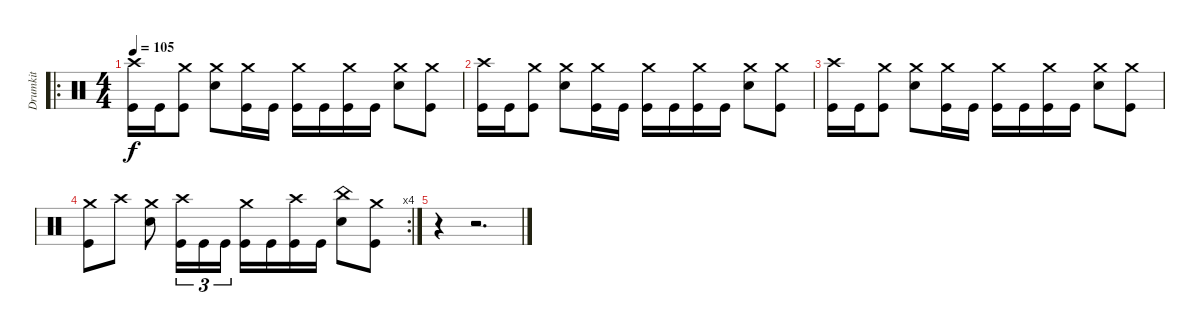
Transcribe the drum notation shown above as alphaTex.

\track ("Drumkit" "Drumkit") {instrument percussion}
\staff {score}
\articulation defaults
\ro
\ts (4 4)
\tempo 105
\clef neutral
\ks c
("Crash high (hit)" "Kick (hit)").16{dy f} "Kick (hit)".16 ("Crash medium (hit)" "Kick (hit)").8 ("Crash medium (hit)" "Snare (hit) 2").8 ("Crash medium (hit)" "Kick (hit)").16 "Kick (hit)".16 ("Crash medium (hit)" "Kick (hit)").16 "Kick (hit)".16 ("Crash medium (hit)" "Kick (hit)").16 "Kick (hit)".16 ("Crash medium (hit)" "Snare (hit) 2").8 ("Crash medium (hit)" "Kick (hit)").8 |
("Crash high (hit)" "Kick (hit)").16 "Kick (hit)".16 ("Crash medium (hit)" "Kick (hit)").8 ("Crash medium (hit)" "Snare (hit) 2").8 ("Crash medium (hit)" "Kick (hit)").16 "Kick (hit)".16 ("Crash medium (hit)" "Kick (hit)").16 "Kick (hit)".16 ("Crash medium (hit)" "Kick (hit)").16 "Kick (hit)".16 ("Crash medium (hit)" "Snare (hit) 2").8 ("Crash medium (hit)" "Kick (hit)").8 |
("Crash high (hit)" "Kick (hit)").16 "Kick (hit)".16 ("Crash medium (hit)" "Kick (hit)").8 ("Crash medium (hit)" "Snare (hit) 2").8 ("Crash medium (hit)" "Kick (hit)").16 "Kick (hit)".16 ("Crash medium (hit)" "Kick (hit)").16 "Kick (hit)".16 ("Crash medium (hit)" "Kick (hit)").16 "Kick (hit)".16 ("Crash medium (hit)" "Snare (hit) 2").8 ("Crash medium (hit)" "Kick (hit)").8 |
\rc 4
("Crash medium (hit)" "Kick (hit)").8 "Crash high (hit)".8 ("Crash medium (hit)" "Snare (hit) 2").8 ("Crash high (hit)" "Kick (hit)").16{tu (3 2)} "Kick (hit)".16{tu (3 2)} "Kick (hit)".16{tu (3 2)} ("Crash medium (hit)" "Kick (hit)").16 "Kick (hit)".16 ("Crash high (hit)" "Kick (hit)").16 "Kick (hit)".16 ("China (hit)" "Snare (hit) 2").8 ("Crash medium (hit)" "Kick (hit)").8 |
r.4 r.2{d}
